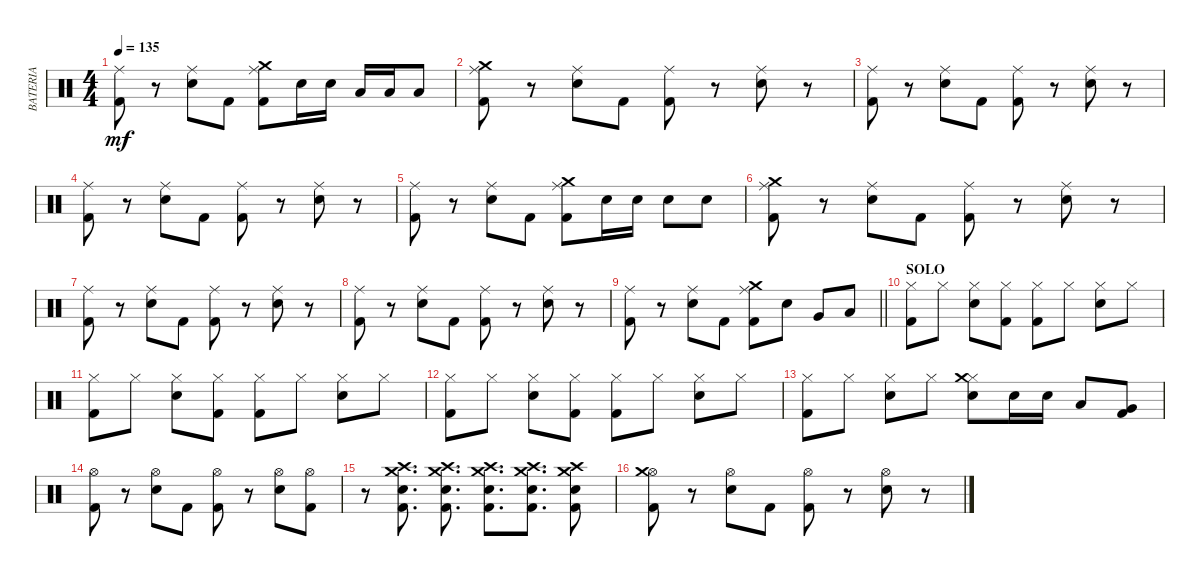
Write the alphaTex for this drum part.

\track ("BATERIA" "BATERIA") {instrument percussion}
\staff {score}
\articulation defaults
\ts (4 4)
\tempo 135
\clef neutral
\ks c
("Ride (middle)" "Kick (hit) 2").8{dy mf} r.8 ("Ride (middle)" "Electric Snare (hit)").8 "Kick (hit) 2".8 ("Crash medium (hit)" "Ride (middle)" "Kick (hit) 2").8 "Electric Snare (hit)".16 "Electric Snare (hit)".16 "Low Tom (hit)".16 "Low Tom (hit)".16 "Low Floor Tom (hit)".8 |
("Crash medium (hit)" "Ride (middle)" "Kick (hit) 2").8 r.8 ("Ride (middle)" "Electric Snare (hit)").8 "Kick (hit) 2".8 ("Ride (middle)" "Kick (hit) 2").8 r.8 ("Ride (middle)" "Electric Snare (hit)").8 r.8 |
("Ride (middle)" "Kick (hit) 2").8 r.8 ("Ride (middle)" "Electric Snare (hit)").8 "Kick (hit) 2".8 ("Ride (middle)" "Kick (hit) 2").8 r.8 ("Ride (middle)" "Electric Snare (hit)").8 r.8 |
("Ride (middle)" "Kick (hit) 2").8 r.8 ("Ride (middle)" "Electric Snare (hit)").8 "Kick (hit) 2".8 ("Ride (middle)" "Kick (hit) 2").8 r.8 ("Ride (middle)" "Electric Snare (hit)").8 r.8 |
("Ride (middle)" "Kick (hit) 2").8 r.8 ("Ride (middle)" "Electric Snare (hit)").8 "Kick (hit) 2".8 ("Crash medium (hit)" "Ride (middle)" "Kick (hit) 2").8 "Electric Snare (hit)".16 "Electric Snare (hit)".16 "Electric Snare (hit)".8 "Electric Snare (hit)".8 |
("Crash medium (hit)" "Ride (middle)" "Kick (hit) 2").8 r.8 ("Ride (middle)" "Electric Snare (hit)").8 "Kick (hit) 2".8 ("Ride (middle)" "Kick (hit) 2").8 r.8 ("Ride (middle)" "Electric Snare (hit)").8 r.8 |
("Ride (middle)" "Kick (hit) 2").8 r.8 ("Ride (middle)" "Electric Snare (hit)").8 "Kick (hit) 2".8 ("Ride (middle)" "Kick (hit) 2").8 r.8 ("Ride (middle)" "Electric Snare (hit)").8 r.8 |
("Ride (middle)" "Kick (hit) 2").8 r.8 ("Ride (middle)" "Electric Snare (hit)").8 "Kick (hit) 2".8 ("Ride (middle)" "Kick (hit) 2").8 r.8 ("Ride (middle)" "Electric Snare (hit)").8 r.8 |
\barLineRight lightlight
("Ride (middle)" "Kick (hit) 2").8 r.8 ("Ride (middle)" "Electric Snare (hit)").8 "Kick (hit) 2".8 ("Crash medium (hit)" "Ride (middle)" "Kick (hit) 2").8 "Electric Snare (hit)".8 "Very Low Tom (hit)".8 "Low Floor Tom (hit)".8 |
\section ("" "SOLO")
("Hi-Hat (closed)" "Kick (hit) 2").8 "Hi-Hat (closed)".8 ("Hi-Hat (closed)" "Electric Snare (hit)").8 ("Hi-Hat (closed)" "Kick (hit) 2").8 ("Hi-Hat (closed)" "Kick (hit) 2").8 "Hi-Hat (closed)".8 ("Hi-Hat (closed)" "Electric Snare (hit)").8 "Hi-Hat (closed)".8 |
("Hi-Hat (closed)" "Kick (hit) 2").8 "Hi-Hat (closed)".8 ("Hi-Hat (closed)" "Electric Snare (hit)").8 ("Hi-Hat (closed)" "Kick (hit) 2").8 ("Hi-Hat (closed)" "Kick (hit) 2").8 "Hi-Hat (closed)".8 ("Hi-Hat (closed)" "Electric Snare (hit)").8 "Hi-Hat (closed)".8 |
("Hi-Hat (closed)" "Kick (hit) 2").8 "Hi-Hat (closed)".8 ("Hi-Hat (closed)" "Electric Snare (hit)").8 ("Hi-Hat (closed)" "Kick (hit) 2").8 ("Hi-Hat (closed)" "Kick (hit) 2").8 "Hi-Hat (closed)".8 ("Hi-Hat (closed)" "Electric Snare (hit)").8 "Hi-Hat (closed)".8 |
("Hi-Hat (closed)" "Kick (hit) 2").8 "Hi-Hat (closed)".8 ("Hi-Hat (closed)" "Electric Snare (hit)").8 "Hi-Hat (closed)".8 ("Hi-Hat (closed)" "Crash medium (hit)" "Electric Snare (hit)").8 "Electric Snare (hit)".16 "Electric Snare (hit)".16 "Low Tom (hit)".8 ("Kick (hit) 2" "Very Low Tom (hit)").8 |
("Hi-Hat (open)" "Kick (hit) 2").8 r.8 ("Hi-Hat (open)" "Electric Snare (hit)").8 "Kick (hit) 2".8 ("Hi-Hat (open)" "Kick (hit) 2").8 r.8 ("Hi-Hat (open)" "Electric Snare (hit)").8 ("Hi-Hat (open)" "Kick (hit) 2").8 |
r.8 ("Electric Snare (hit)" "Crash medium (hit)" "Kick (hit) 2" "Crash high (hit)").8{d} ("Electric Snare (hit)" "Crash medium (hit)" "Kick (hit) 2" "Crash high (hit)").8{d} ("Electric Snare (hit)" "Crash medium (hit)" "Kick (hit) 2" "Crash high (hit)").8{d} ("Electric Snare (hit)" "Crash medium (hit)" "Kick (hit) 2" "Crash high (hit)").8{d} ("Electric Snare (hit)" "Crash medium (hit)" "Kick (hit) 2" "Crash high (hit)").8 |
("Hi-Hat (open)" "Kick (hit) 2" "Crash medium (hit)").8 r.8 ("Hi-Hat (open)" "Electric Snare (hit)").8 "Kick (hit) 2".8 ("Hi-Hat (open)" "Kick (hit) 2").8 r.8 ("Hi-Hat (open)" "Electric Snare (hit)").8 r.8
